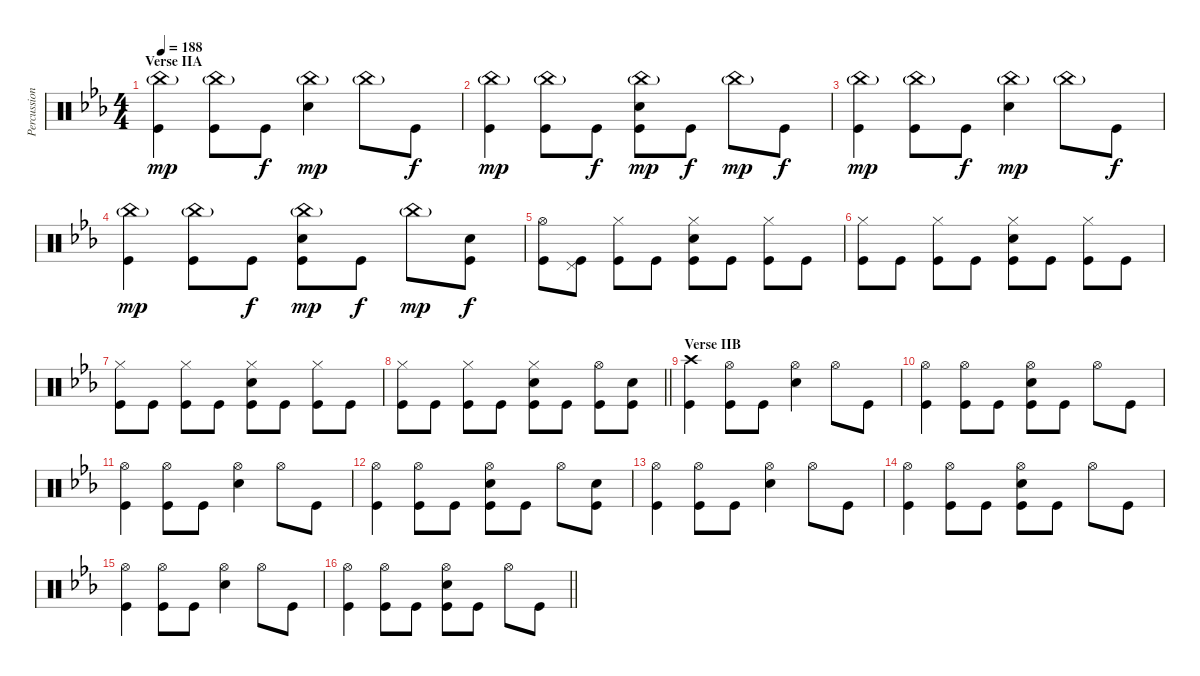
\track ("Percussion" "Percussion") {instrument percussion}
\staff {score}
\articulation defaults
\ts (4 4)
\section ("" "Verse IIA")
\tempo 188
\clef neutral
\ks eb
("China (hit)"{g} "Kick (hit)").4{dy mp} ("China (hit)"{g} "Kick (hit)").8 "Kick (hit)".8{dy f} ("China (hit)"{g} "Electric Snare (hit)").4{dy mp} "China (hit)"{g}.8 "Kick (hit)".8{dy f} |
("China (hit)"{g} "Kick (hit)").4{dy mp} ("China (hit)"{g} "Kick (hit)").8 "Kick (hit)".8{dy f} ("China (hit)"{g} "Electric Snare (hit)" "Kick (hit)").8{dy mp} "Kick (hit)".8{dy f} "China (hit)"{g}.8{dy mp} "Kick (hit)".8{dy f} |
("China (hit)"{g} "Kick (hit)").4{dy mp} ("China (hit)"{g} "Kick (hit)").8 "Kick (hit)".8{dy f} ("China (hit)"{g} "Electric Snare (hit)").4{dy mp} "China (hit)"{g}.8 "Kick (hit)".8{dy f} |
("China (hit)"{g} "Kick (hit)").4{dy mp} ("China (hit)"{g} "Kick (hit)").8 "Kick (hit)".8{dy f} ("China (hit)"{g} "Electric Snare (hit)" "Kick (hit)").8{dy mp} "Kick (hit)".8{dy f} "China (hit)"{g}.8{dy mp} ("Electric Snare (hit)" "Kick (hit)").8{dy f} |
("Hi-Hat (open)" "Kick (hit)").8 ("Pedal Hi-Hat (hit)" "Kick (hit)").8 ("Hi-Hat (closed)" "Kick (hit)").8 "Kick (hit)".8 ("Hi-Hat (closed)" "Electric Snare (hit)" "Kick (hit)").8 "Kick (hit)".8 ("Hi-Hat (closed)" "Kick (hit)").8 "Kick (hit)".8 |
("Hi-Hat (closed)" "Kick (hit)").8 "Kick (hit)".8 ("Hi-Hat (closed)" "Kick (hit)").8 "Kick (hit)".8 ("Hi-Hat (closed)" "Electric Snare (hit)" "Kick (hit)").8 "Kick (hit)".8 ("Hi-Hat (closed)" "Kick (hit)").8 "Kick (hit)".8 |
("Hi-Hat (closed)" "Kick (hit)").8 "Kick (hit)".8 ("Hi-Hat (closed)" "Kick (hit)").8 "Kick (hit)".8 ("Hi-Hat (closed)" "Electric Snare (hit)" "Kick (hit)").8 "Kick (hit)".8 ("Hi-Hat (closed)" "Kick (hit)").8 "Kick (hit)".8 |
\barLineRight lightlight
("Hi-Hat (closed)" "Kick (hit)").8 "Kick (hit)".8 ("Hi-Hat (closed)" "Kick (hit)").8 "Kick (hit)".8 ("Hi-Hat (closed)" "Electric Snare (hit)" "Kick (hit)").8 "Kick (hit)".8 ("Hi-Hat (open)" "Kick (hit)").8 ("Electric Snare (hit)" "Kick (hit)").8 |
\section ("" "Verse IIB")
("Crash high (hit)" "Kick (hit)").4 ("Hi-Hat (open)" "Kick (hit)").8 "Kick (hit)".8 ("Hi-Hat (open)" "Electric Snare (hit)").4 "Hi-Hat (open)".8 "Kick (hit)".8 |
("Hi-Hat (open)" "Kick (hit)").4 ("Hi-Hat (open)" "Kick (hit)").8 "Kick (hit)".8 ("Hi-Hat (open)" "Electric Snare (hit)" "Kick (hit)").8 "Kick (hit)".8 "Hi-Hat (open)".8 "Kick (hit)".8 |
("Hi-Hat (open)" "Kick (hit)").4 ("Hi-Hat (open)" "Kick (hit)").8 "Kick (hit)".8 ("Hi-Hat (open)" "Electric Snare (hit)").4 "Hi-Hat (open)".8 "Kick (hit)".8 |
("Hi-Hat (open)" "Kick (hit)").4 ("Hi-Hat (open)" "Kick (hit)").8 "Kick (hit)".8 ("Hi-Hat (open)" "Electric Snare (hit)" "Kick (hit)").8 "Kick (hit)".8 "Hi-Hat (open)".8 ("Electric Snare (hit)" "Kick (hit)").8 |
("Hi-Hat (open)" "Kick (hit)").4 ("Hi-Hat (open)" "Kick (hit)").8 "Kick (hit)".8 ("Hi-Hat (open)" "Electric Snare (hit)").4 "Hi-Hat (open)".8 "Kick (hit)".8 |
("Hi-Hat (open)" "Kick (hit)").4 ("Hi-Hat (open)" "Kick (hit)").8 "Kick (hit)".8 ("Hi-Hat (open)" "Electric Snare (hit)" "Kick (hit)").8 "Kick (hit)".8 "Hi-Hat (open)".8 "Kick (hit)".8 |
("Hi-Hat (open)" "Kick (hit)").4 ("Hi-Hat (open)" "Kick (hit)").8 "Kick (hit)".8 ("Hi-Hat (open)" "Electric Snare (hit)").4 "Hi-Hat (open)".8 "Kick (hit)".8 |
\barLineRight lightlight
("Hi-Hat (open)" "Kick (hit)").4 ("Hi-Hat (open)" "Kick (hit)").8 "Kick (hit)".8 ("Hi-Hat (open)" "Electric Snare (hit)" "Kick (hit)").8 "Kick (hit)".8 "Hi-Hat (open)".8 "Kick (hit)".8
